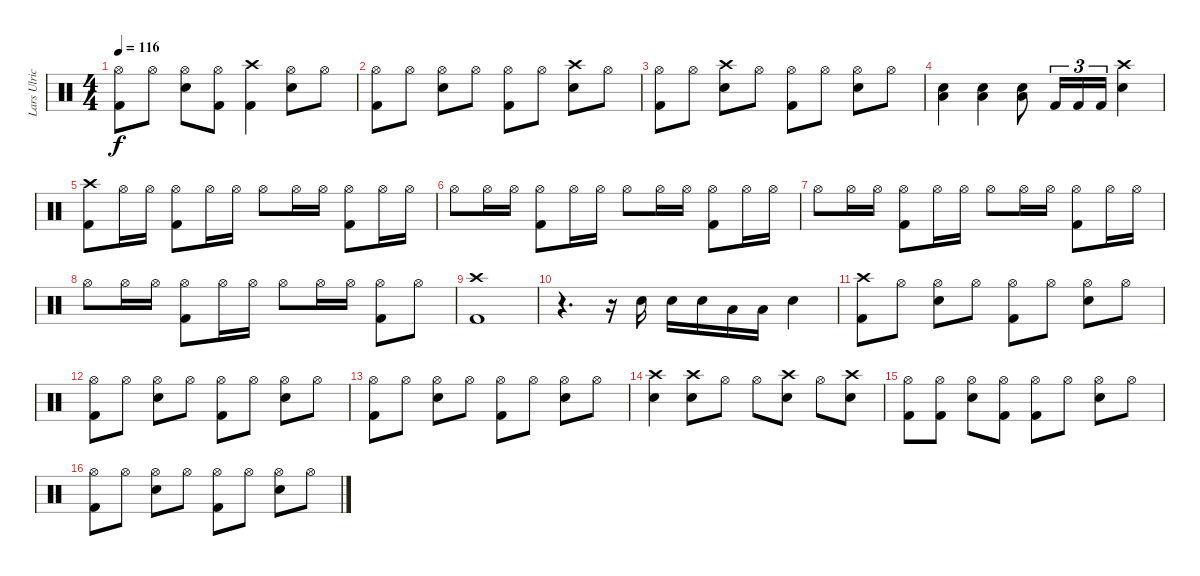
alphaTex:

\track ("Lars Ulrich" "Lars Ulric") {instrument percussion}
\staff {score}
\articulation defaults
\ts (4 4)
\tempo 116
\clef neutral
\ks c
("Hi-Hat (open)" "Kick (hit) 2").8{dy f} "Hi-Hat (open)".8 ("Hi-Hat (open)" "Electric Snare (hit)").8 ("Hi-Hat (open)" "Kick (hit) 2").8 ("Crash high (hit)" "Kick (hit) 2").4 ("Hi-Hat (open)" "Electric Snare (hit)").8 "Hi-Hat (open)".8 |
("Hi-Hat (open)" "Kick (hit) 2").8 "Hi-Hat (open)".8 ("Hi-Hat (open)" "Electric Snare (hit)").8 "Hi-Hat (open)".8 ("Hi-Hat (open)" "Kick (hit) 2").8 "Hi-Hat (open)".8 ("Crash high (hit)" "Electric Snare (hit)").8 "Hi-Hat (open)".8 |
("Hi-Hat (open)" "Kick (hit) 2").8 "Hi-Hat (open)".8 ("Crash high (hit)" "Electric Snare (hit)").8 "Hi-Hat (open)".8 ("Hi-Hat (open)" "Kick (hit) 2").8 "Hi-Hat (open)".8 ("Hi-Hat (open)" "Electric Snare (hit)").8 "Hi-Hat (open)".8 |
("Electric Snare (hit)" "Low Floor Tom (hit)").4 ("Electric Snare (hit)" "Low Floor Tom (hit)").4 ("Electric Snare (hit)" "Low Floor Tom (hit)").8 "Kick (hit) 2".16{tu (3 2)} "Kick (hit) 2".16{tu (3 2)} "Kick (hit) 2".16{tu (3 2)} ("Crash high (hit)" "Electric Snare (hit)").4 |
("Crash high (hit)" "Kick (hit) 2").8 "Hi-Hat (open)".16 "Hi-Hat (open)".16 ("Hi-Hat (open)" "Kick (hit) 2").8 "Hi-Hat (open)".16 "Hi-Hat (open)".16 "Hi-Hat (open)".8 "Hi-Hat (open)".16 "Hi-Hat (open)".16 ("Hi-Hat (open)" "Kick (hit) 2").8 "Hi-Hat (open)".16 "Hi-Hat (open)".16 |
"Hi-Hat (open)".8 "Hi-Hat (open)".16 "Hi-Hat (open)".16 ("Hi-Hat (open)" "Kick (hit) 2").8 "Hi-Hat (open)".16 "Hi-Hat (open)".16 "Hi-Hat (open)".8 "Hi-Hat (open)".16 "Hi-Hat (open)".16 ("Hi-Hat (open)" "Kick (hit) 2").8 "Hi-Hat (open)".16 "Hi-Hat (open)".16 |
"Hi-Hat (open)".8 "Hi-Hat (open)".16 "Hi-Hat (open)".16 ("Hi-Hat (open)" "Kick (hit) 2").8 "Hi-Hat (open)".16 "Hi-Hat (open)".16 "Hi-Hat (open)".8 "Hi-Hat (open)".16 "Hi-Hat (open)".16 ("Hi-Hat (open)" "Kick (hit) 2").8 "Hi-Hat (open)".16 "Hi-Hat (open)".16 |
"Hi-Hat (open)".8 "Hi-Hat (open)".16 "Hi-Hat (open)".16 ("Hi-Hat (open)" "Kick (hit) 2").8 "Hi-Hat (open)".16 "Hi-Hat (open)".16 "Hi-Hat (open)".8 "Hi-Hat (open)".16 "Hi-Hat (open)".16 ("Hi-Hat (open)" "Kick (hit) 2").8 "Hi-Hat (open)".8 |
("Crash high (hit)" "Kick (hit) 2").1 |
r.4{d} r.16 "Electric Snare (hit)".16 "Electric Snare (hit)".16 "Electric Snare (hit)".16 "Low Tom (hit)".16 "Low Tom (hit)".16 "Electric Snare (hit)".4 |
("Crash high (hit)" "Kick (hit) 2").8 "Hi-Hat (open)".8 ("Hi-Hat (open)" "Electric Snare (hit)").8 "Hi-Hat (open)".8 ("Hi-Hat (open)" "Kick (hit) 2").8 "Hi-Hat (open)".8 ("Hi-Hat (open)" "Electric Snare (hit)").8 "Hi-Hat (open)".8 |
("Hi-Hat (open)" "Kick (hit) 2").8 "Hi-Hat (open)".8 ("Hi-Hat (open)" "Electric Snare (hit)").8 "Hi-Hat (open)".8 ("Hi-Hat (open)" "Kick (hit) 2").8 "Hi-Hat (open)".8 ("Hi-Hat (open)" "Electric Snare (hit)").8 "Hi-Hat (open)".8 |
("Hi-Hat (open)" "Kick (hit) 2").8 "Hi-Hat (open)".8 ("Hi-Hat (open)" "Electric Snare (hit)").8 "Hi-Hat (open)".8 ("Hi-Hat (open)" "Kick (hit) 2").8 "Hi-Hat (open)".8 ("Hi-Hat (open)" "Electric Snare (hit)").8 "Hi-Hat (open)".8 |
("Crash high (hit)" "Electric Snare (hit)").4 ("Crash high (hit)" "Electric Snare (hit)").8 "Hi-Hat (open)".8 "Hi-Hat (open)".8 ("Crash high (hit)" "Electric Snare (hit)").8 "Hi-Hat (open)".8 ("Crash high (hit)" "Electric Snare (hit)").8 |
("Hi-Hat (open)" "Kick (hit) 2").8 ("Hi-Hat (open)" "Kick (hit) 2").8 ("Hi-Hat (open)" "Electric Snare (hit)").8 ("Hi-Hat (open)" "Kick (hit) 2").8 ("Hi-Hat (open)" "Kick (hit) 2").8 "Hi-Hat (open)".8 ("Hi-Hat (open)" "Electric Snare (hit)").8 "Hi-Hat (open)".8 |
("Hi-Hat (open)" "Kick (hit) 2").8 "Hi-Hat (open)".8 ("Hi-Hat (open)" "Electric Snare (hit)").8 "Hi-Hat (open)".8 ("Hi-Hat (open)" "Kick (hit) 2").8 "Hi-Hat (open)".8 ("Hi-Hat (open)" "Electric Snare (hit)").8 "Hi-Hat (open)".8
